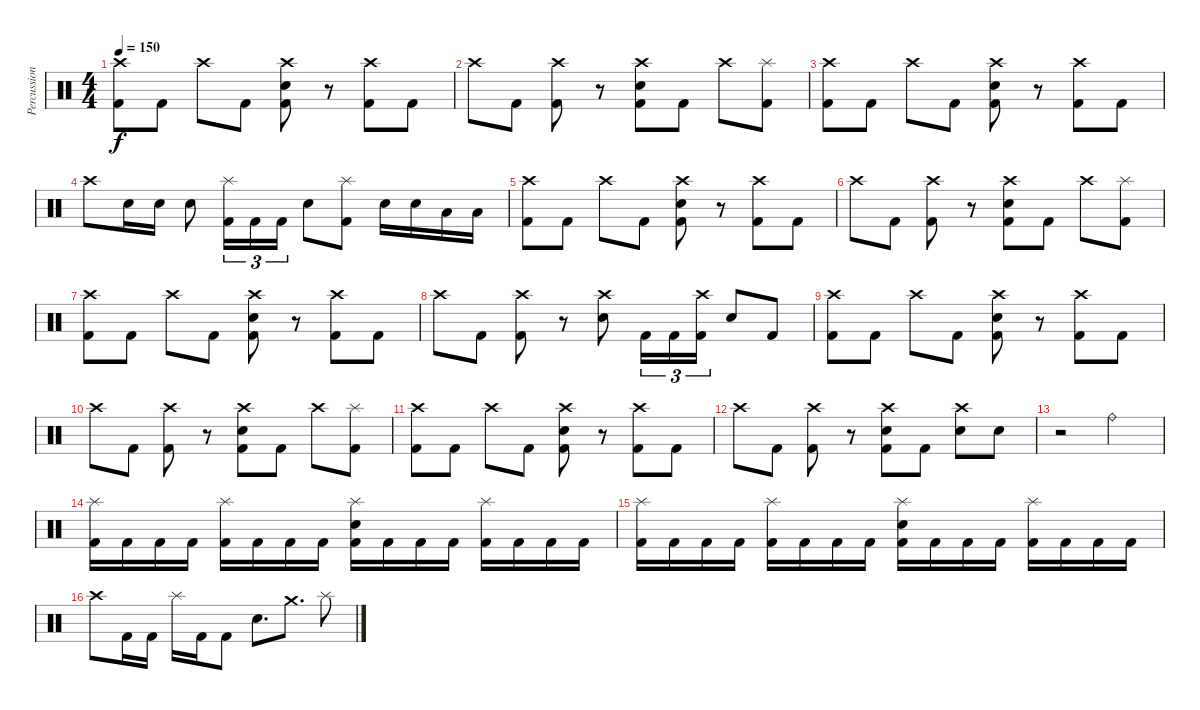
\track ("Percussion" "Percussion") {instrument percussion}
\staff {score}
\articulation defaults
\ts (4 4)
\tempo 150
\clef neutral
\ks c
("Crash high (hit)" "Kick (hit) 2").8{dy f} "Kick (hit) 2".8 "Crash high (hit)".8 "Kick (hit) 2".8 ("Crash high (hit)" "Electric Snare (hit)" "Kick (hit) 2").8 r.8 ("Crash high (hit)" "Kick (hit) 2").8 "Kick (hit) 2".8 |
"Crash high (hit)".8 "Kick (hit) 2".8 ("Crash high (hit)" "Kick (hit) 2").8 r.8 ("Crash high (hit)" "Electric Snare (hit)" "Kick (hit) 2").8 "Kick (hit) 2".8 "Crash high (hit)".8 ("Splash (hit)" "Kick (hit) 2").8 |
("Crash high (hit)" "Kick (hit) 2").8 "Kick (hit) 2".8 "Crash high (hit)".8 "Kick (hit) 2".8 ("Crash high (hit)" "Electric Snare (hit)" "Kick (hit) 2").8 r.8 ("Crash high (hit)" "Kick (hit) 2").8 "Kick (hit) 2".8 |
"Crash high (hit)".8 "Electric Snare (hit)".16 "Electric Snare (hit)".16 "Electric Snare (hit)".8 ("Splash (hit)" "Kick (hit) 2").16{tu (3 2)} "Kick (hit) 2".16{tu (3 2)} "Kick (hit) 2".16{tu (3 2)} "Electric Snare (hit)".8 ("Splash (hit)" "Kick (hit) 2").8 "Electric Snare (hit)".16 "Electric Snare (hit)".16 "Low Tom (hit)".16 "Low Tom (hit)".16 |
("Crash high (hit)" "Kick (hit) 2").8 "Kick (hit) 2".8 "Crash high (hit)".8 "Kick (hit) 2".8 ("Crash high (hit)" "Electric Snare (hit)" "Kick (hit) 2").8 r.8 ("Crash high (hit)" "Kick (hit) 2").8 "Kick (hit) 2".8 |
"Crash high (hit)".8 "Kick (hit) 2".8 ("Crash high (hit)" "Kick (hit) 2").8 r.8 ("Crash high (hit)" "Electric Snare (hit)" "Kick (hit) 2").8 "Kick (hit) 2".8 "Crash high (hit)".8 ("Splash (hit)" "Kick (hit) 2").8 |
("Crash high (hit)" "Kick (hit) 2").8 "Kick (hit) 2".8 "Crash high (hit)".8 "Kick (hit) 2".8 ("Crash high (hit)" "Electric Snare (hit)" "Kick (hit) 2").8 r.8 ("Crash high (hit)" "Kick (hit) 2").8 "Kick (hit) 2".8 |
"Crash high (hit)".8 "Kick (hit) 2".8 ("Crash high (hit)" "Kick (hit) 2").8 r.8 ("Crash high (hit)" "Electric Snare (hit)").8 "Kick (hit) 2".16{tu (3 2)} "Kick (hit) 2".16{tu (3 2)} ("Crash high (hit)" "Kick (hit) 2").16{tu (3 2)} "Electric Snare (hit)".8 "Kick (hit) 2".8 |
("Crash high (hit)" "Kick (hit) 2").8 "Kick (hit) 2".8 "Crash high (hit)".8 "Kick (hit) 2".8 ("Crash high (hit)" "Electric Snare (hit)" "Kick (hit) 2").8 r.8 ("Crash high (hit)" "Kick (hit) 2").8 "Kick (hit) 2".8 |
"Crash high (hit)".8 "Kick (hit) 2".8 ("Crash high (hit)" "Kick (hit) 2").8 r.8 ("Crash high (hit)" "Electric Snare (hit)" "Kick (hit) 2").8 "Kick (hit) 2".8 "Crash high (hit)".8 ("Splash (hit)" "Kick (hit) 2").8 |
("Crash high (hit)" "Kick (hit) 2").8 "Kick (hit) 2".8 "Crash high (hit)".8 "Kick (hit) 2".8 ("Crash high (hit)" "Electric Snare (hit)" "Kick (hit) 2").8 r.8 ("Crash high (hit)" "Kick (hit) 2").8 "Kick (hit) 2".8 |
"Crash high (hit)".8 "Kick (hit) 2".8 ("Crash high (hit)" "Kick (hit) 2").8 r.8 ("Crash high (hit)" "Electric Snare (hit)" "Kick (hit) 2").8 "Kick (hit) 2".8 ("Crash high (hit)" "Electric Snare (hit)").8 "Electric Snare (hit)".8 |
r.2 "Ride (bell)".2 |
("Splash (hit)" "Kick (hit) 2").16 "Kick (hit) 2".16 "Kick (hit) 2".16 "Kick (hit) 2".16 ("Splash (hit)" "Kick (hit) 2").16 "Kick (hit) 2".16 "Kick (hit) 2".16 "Kick (hit) 2".16 ("Splash (hit)" "Electric Snare (hit)" "Kick (hit) 2").16 "Kick (hit) 2".16 "Kick (hit) 2".16 "Kick (hit) 2".16 ("Splash (hit)" "Kick (hit) 2").16 "Kick (hit) 2".16 "Kick (hit) 2".16 "Kick (hit) 2".16 |
("Splash (hit)" "Kick (hit) 2").16 "Kick (hit) 2".16 "Kick (hit) 2".16 "Kick (hit) 2".16 ("Splash (hit)" "Kick (hit) 2").16 "Kick (hit) 2".16 "Kick (hit) 2".16 "Kick (hit) 2".16 ("Splash (hit)" "Electric Snare (hit)" "Kick (hit) 2").16 "Kick (hit) 2".16 "Kick (hit) 2".16 "Kick (hit) 2".16 ("Splash (hit)" "Kick (hit) 2").16 "Kick (hit) 2".16 "Kick (hit) 2".16 "Kick (hit) 2".16 |
"Crash high (hit)".8 "Kick (hit) 2".16 "Kick (hit) 2".16 "Splash (hit)".16 "Kick (hit) 2".16 "Kick (hit) 2".8 "Electric Snare (hit)".8{d} "Crash medium (hit)".8{d} "Splash (hit)".8
